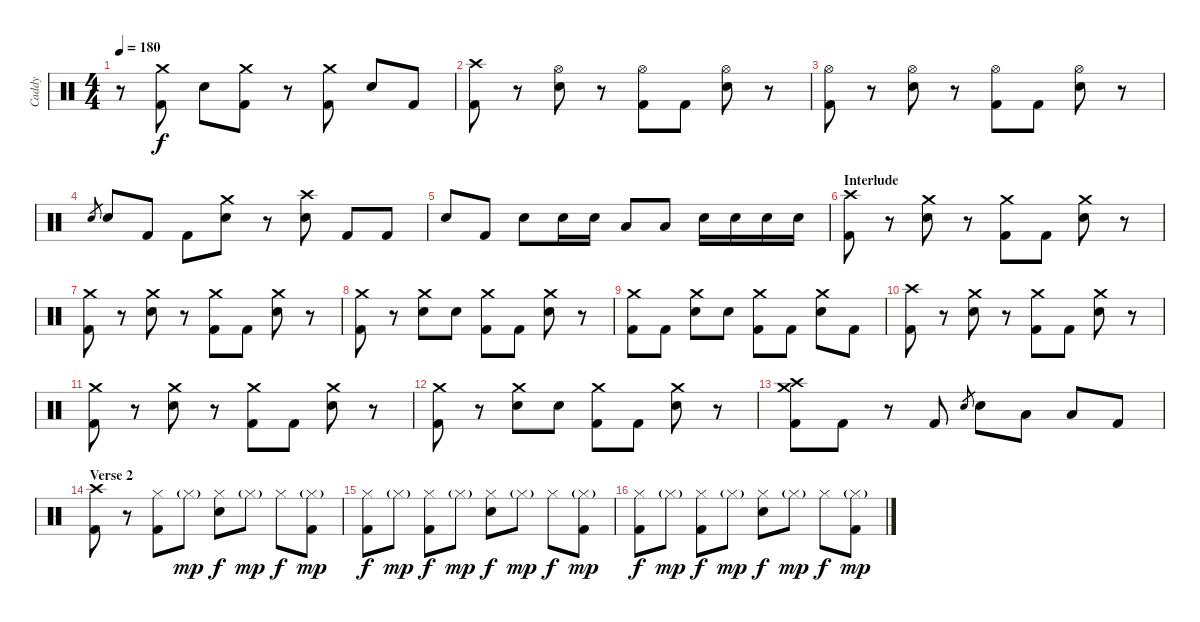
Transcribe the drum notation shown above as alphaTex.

\track ("Caddy" "Caddy") {instrument percussion}
\staff {score}
\articulation defaults
\ts (4 4)
\tempo 180
\clef neutral
\ks c
r.8{dy f} ("Crash medium (hit)" "Kick (hit) 2").8 "Electric Snare (hit)".8 ("Crash medium (hit)" "Kick (hit) 2").8 r.8 ("Crash medium (hit)" "Kick (hit) 2").8 "Electric Snare (hit)".8 "Kick (hit) 2".8 |
("Crash high (hit)" "Kick (hit) 2").8 r.8 ("Hi-Hat (open)" "Electric Snare (hit)").8 r.8 ("Hi-Hat (open)" "Kick (hit) 2").8 "Kick (hit) 2".8 ("Hi-Hat (open)" "Electric Snare (hit)").8 r.8 |
("Hi-Hat (open)" "Kick (hit) 2").8 r.8 ("Hi-Hat (open)" "Electric Snare (hit)").8 r.8 ("Hi-Hat (open)" "Kick (hit) 2").8 "Kick (hit) 2".8 ("Hi-Hat (open)" "Electric Snare (hit)").8 r.8 |
"Electric Snare (hit)".8{gr} "Electric Snare (hit)".8 "Kick (hit) 2".8 "Kick (hit) 2".8 ("Crash medium (hit)" "Electric Snare (hit)").8 r.8 ("Crash high (hit)" "Electric Snare (hit)").8 "Kick (hit) 2".8 "Kick (hit) 2".8 |
"Electric Snare (hit)".8 "Kick (hit) 2".8 "Electric Snare (hit)".8 "Electric Snare (hit)".16 "Electric Snare (hit)".16 "Low Tom (hit)".8 "Low Tom (hit)".8 "Electric Snare (hit)".16 "Electric Snare (hit)".16 "Electric Snare (hit)".16 "Electric Snare (hit)".16 |
\section ("" "Interlude")
("Crash high (hit)" "Kick (hit) 2").8 r.8 ("Crash medium (hit)" "Electric Snare (hit)").8 r.8 ("Crash medium (hit)" "Kick (hit) 2").8 "Kick (hit) 2".8 ("Crash medium (hit)" "Electric Snare (hit)").8 r.8 |
("Crash medium (hit)" "Kick (hit) 2").8 r.8 ("Crash medium (hit)" "Electric Snare (hit)").8 r.8 ("Crash medium (hit)" "Kick (hit) 2").8 "Kick (hit) 2".8 ("Crash medium (hit)" "Electric Snare (hit)").8 r.8 |
("Crash medium (hit)" "Kick (hit) 2").8 r.8 ("Crash medium (hit)" "Electric Snare (hit)").8 "Electric Snare (hit)".8 ("Crash medium (hit)" "Kick (hit) 2").8 "Kick (hit) 2".8 ("Crash medium (hit)" "Electric Snare (hit)").8 r.8 |
("Crash medium (hit)" "Kick (hit) 2").8 "Kick (hit) 2".8 ("Crash medium (hit)" "Electric Snare (hit)").8 "Electric Snare (hit)".8 ("Crash medium (hit)" "Kick (hit) 2").8 "Kick (hit) 2".8 ("Crash medium (hit)" "Electric Snare (hit)").8 "Kick (hit) 2".8 |
("Crash high (hit)" "Kick (hit) 2").8 r.8 ("Crash medium (hit)" "Electric Snare (hit)").8 r.8 ("Crash medium (hit)" "Kick (hit) 2").8 "Kick (hit) 2".8 ("Crash medium (hit)" "Electric Snare (hit)").8 r.8 |
("Crash medium (hit)" "Kick (hit) 2").8 r.8 ("Crash medium (hit)" "Electric Snare (hit)").8 r.8 ("Crash medium (hit)" "Kick (hit) 2").8 "Kick (hit) 2".8 ("Crash medium (hit)" "Electric Snare (hit)").8 r.8 |
("Crash medium (hit)" "Kick (hit) 2").8 r.8 ("Crash medium (hit)" "Electric Snare (hit)").8 "Electric Snare (hit)".8 ("Crash medium (hit)" "Kick (hit) 2").8 "Kick (hit) 2".8 ("Crash medium (hit)" "Electric Snare (hit)").8 r.8 |
("Crash medium (hit)" "Crash high (hit)" "Kick (hit) 2").8 "Kick (hit) 2".8 r.8 "Kick (hit) 2".8 "Electric Snare (hit)".8{gr} "Electric Snare (hit)".8 "Low Tom (hit)".8 "Low Floor Tom (hit)".8 "Kick (hit) 2".8 |
\section ("" "Verse 2")
("Crash high (hit)" "Kick (hit) 2").8 r.8 ("Hi-Hat (closed)" "Kick (hit) 2").8 "Hi-Hat (closed)"{g}.8{dy mp} ("Hi-Hat (closed)" "Electric Snare (hit)").8{dy f} "Hi-Hat (closed)"{g}.8{dy mp} "Hi-Hat (closed)".8{dy f} ("Hi-Hat (closed)"{g} "Kick (hit) 2").8{dy mp} |
("Hi-Hat (closed)" "Kick (hit) 2").8{dy f} "Hi-Hat (closed)"{g}.8{dy mp} ("Hi-Hat (closed)" "Kick (hit) 2").8{dy f} "Hi-Hat (closed)"{g}.8{dy mp} ("Hi-Hat (closed)" "Electric Snare (hit)").8{dy f} "Hi-Hat (closed)"{g}.8{dy mp} "Hi-Hat (closed)".8{dy f} ("Hi-Hat (closed)"{g} "Kick (hit) 2").8{dy mp} |
("Hi-Hat (closed)" "Kick (hit) 2").8{dy f} "Hi-Hat (closed)"{g}.8{dy mp} ("Hi-Hat (closed)" "Kick (hit) 2").8{dy f} "Hi-Hat (closed)"{g}.8{dy mp} ("Hi-Hat (closed)" "Electric Snare (hit)").8{dy f} "Hi-Hat (closed)"{g}.8{dy mp} "Hi-Hat (closed)".8{dy f} ("Hi-Hat (closed)"{g} "Kick (hit) 2").8{dy mp}
